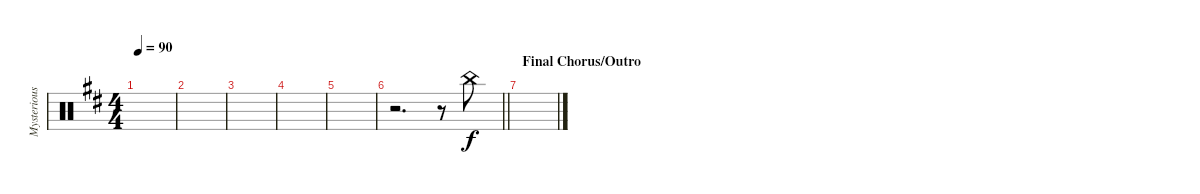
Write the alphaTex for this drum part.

\track ("Mysterious Symbal" "Mysterious") {instrument percussion}
\staff {score}
\articulation defaults
\ts (4 4)
\tempo 90
\clef neutral
\ks d
|
|
|
|
|
\barLineRight lightlight
r.2{d} r.8 "China (hit)".8 |
\section ("" "Final Chorus/Outro")
